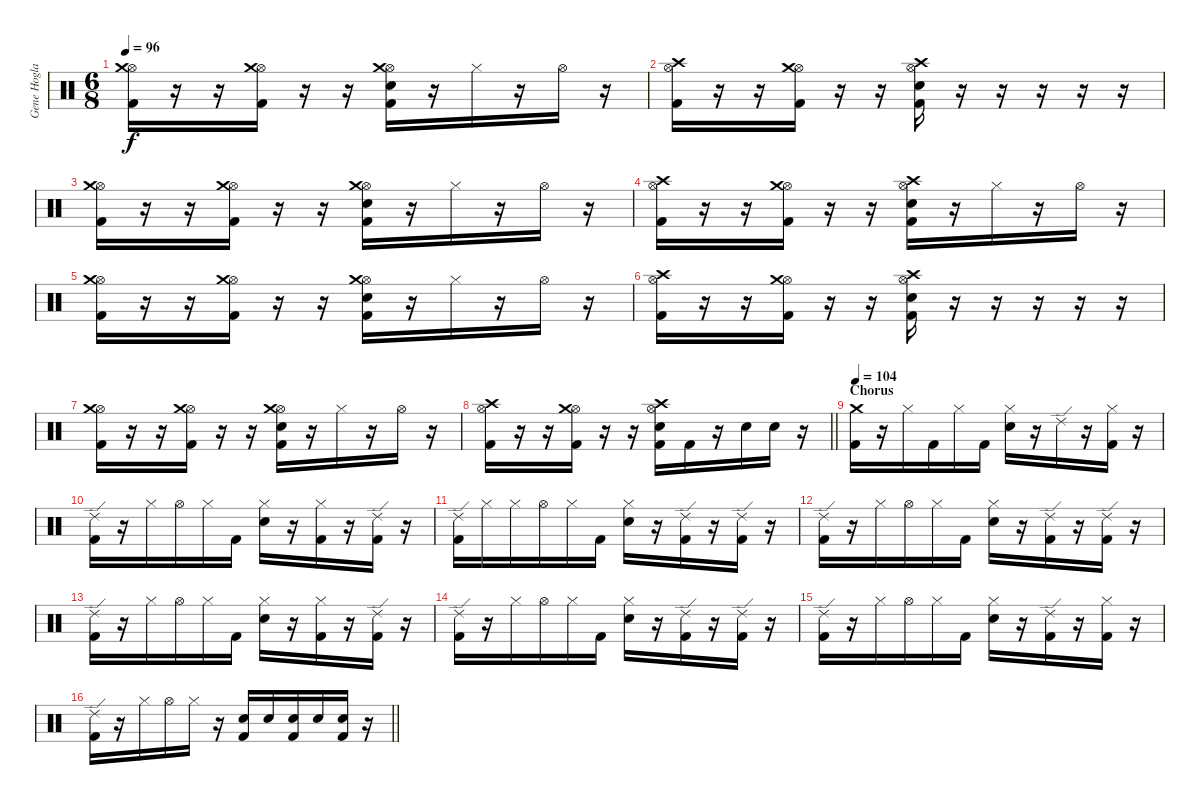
\track ("Gene Hoglan" "Gene Hogla") {instrument percussion}
\staff {score}
\articulation defaults
\ts (6 8)
\tempo 96
\clef neutral
\ks c
("Hi-Hat (open)" "Crash medium (hit)" "Kick (hit) 2").16{dy f} r.16 r.16 ("Hi-Hat (open)" "Crash medium (hit)" "Kick (hit) 2").16 r.16 r.16 ("Hi-Hat (open)" "Crash medium (hit)" "Snare (hit) 2" "Kick (hit) 2").16 r.16 "Hi-Hat (closed)".16 r.16 "Hi-Hat (open)".16 r.16 |
("Hi-Hat (open)" "Crash high (hit)" "Kick (hit) 2").16 r.16 r.16 ("Hi-Hat (open)" "Crash medium (hit)" "Kick (hit) 2").16 r.16 r.16 ("Hi-Hat (open)" "Crash high (hit)" "Snare (hit) 2" "Kick (hit) 2").16 r.16 r.16 r.16 r.16 r.16 |
("Hi-Hat (open)" "Crash medium (hit)" "Kick (hit) 2").16 r.16 r.16 ("Hi-Hat (open)" "Crash medium (hit)" "Kick (hit) 2").16 r.16 r.16 ("Hi-Hat (open)" "Crash medium (hit)" "Snare (hit) 2" "Kick (hit) 2").16 r.16 "Hi-Hat (closed)".16 r.16 "Hi-Hat (open)".16 r.16 |
("Hi-Hat (open)" "Crash high (hit)" "Kick (hit) 2").16 r.16 r.16 ("Hi-Hat (open)" "Crash medium (hit)" "Kick (hit) 2").16 r.16 r.16 ("Hi-Hat (open)" "Crash high (hit)" "Snare (hit) 2" "Kick (hit) 2").16 r.16 "Hi-Hat (closed)".16 r.16 "Hi-Hat (open)".16 r.16 |
("Hi-Hat (open)" "Crash medium (hit)" "Kick (hit) 2").16 r.16 r.16 ("Hi-Hat (open)" "Crash medium (hit)" "Kick (hit) 2").16 r.16 r.16 ("Hi-Hat (open)" "Crash medium (hit)" "Snare (hit) 2" "Kick (hit) 2").16 r.16 "Hi-Hat (closed)".16 r.16 "Hi-Hat (open)".16 r.16 |
("Hi-Hat (open)" "Crash high (hit)" "Kick (hit) 2").16 r.16 r.16 ("Hi-Hat (open)" "Crash medium (hit)" "Kick (hit) 2").16 r.16 r.16 ("Hi-Hat (open)" "Crash high (hit)" "Snare (hit) 2" "Kick (hit) 2").16 r.16 r.16 r.16 r.16 r.16 |
("Hi-Hat (open)" "Crash medium (hit)" "Kick (hit) 2").16 r.16 r.16 ("Hi-Hat (open)" "Crash medium (hit)" "Kick (hit) 2").16 r.16 r.16 ("Hi-Hat (open)" "Crash medium (hit)" "Snare (hit) 2" "Kick (hit) 2").16 r.16 "Hi-Hat (closed)".16 r.16 "Hi-Hat (open)".16 r.16 |
\barLineRight lightlight
("Hi-Hat (open)" "Crash high (hit)" "Kick (hit) 2").16 r.16 r.16 ("Hi-Hat (open)" "Crash medium (hit)" "Kick (hit) 2").16 r.16 r.16 ("Hi-Hat (open)" "Crash high (hit)" "Snare (hit) 2" "Kick (hit) 2").16 "Kick (hit) 2".16 r.16 "Snare (hit) 2".16 "Snare (hit) 2".16 r.16 |
\section ("" "Chorus")
\tempo 104
("Crash medium (hit)" "Kick (hit) 2").16 r.16 "Hi-Hat (closed)".16 "Kick (hit) 2".16 "Hi-Hat (closed)".16 "Kick (hit) 2".16 ("Hi-Hat (closed)" "Snare (hit) 2").16 r.16 "Ride (edge) 2".16 r.16 ("Hi-Hat (closed)" "Kick (hit) 2").16 r.16 |
("Ride (edge) 2" "Kick (hit) 2").16 r.16 "Hi-Hat (closed)".16 "Hi-Hat (open)".16 "Hi-Hat (closed)".16 "Kick (hit) 2".16 ("Hi-Hat (closed)" "Snare (hit) 2").16 r.16 ("Hi-Hat (closed)" "Kick (hit) 2").16 r.16 ("Ride (edge) 2" "Kick (hit) 2").16 r.16 |
("Ride (edge) 2" "Kick (hit) 2").16 "Hi-Hat (closed)".16 "Hi-Hat (closed)".16 "Hi-Hat (open)".16 "Hi-Hat (closed)".16 "Kick (hit) 2".16 ("Hi-Hat (closed)" "Snare (hit) 2").16 r.16 ("Ride (edge) 2" "Kick (hit) 2").16 r.16 ("Ride (edge) 2" "Kick (hit) 2").16 r.16 |
("Ride (edge) 2" "Kick (hit) 2").16 r.16 "Hi-Hat (closed)".16 "Hi-Hat (open)".16 "Hi-Hat (closed)".16 "Kick (hit) 2".16 ("Hi-Hat (closed)" "Snare (hit) 2").16 r.16 ("Ride (edge) 2" "Kick (hit) 2").16 r.16 ("Ride (edge) 2" "Kick (hit) 2").16 r.16 |
("Ride (edge) 2" "Kick (hit) 2").16 r.16 "Hi-Hat (closed)".16 "Hi-Hat (open)".16 "Hi-Hat (closed)".16 "Kick (hit) 2".16 ("Hi-Hat (closed)" "Snare (hit) 2").16 r.16 ("Hi-Hat (closed)" "Kick (hit) 2").16 r.16 ("Ride (edge) 2" "Kick (hit) 2").16 r.16 |
("Ride (edge) 2" "Kick (hit) 2").16 r.16 "Hi-Hat (closed)".16 "Hi-Hat (open)".16 "Hi-Hat (closed)".16 "Kick (hit) 2".16 ("Hi-Hat (closed)" "Snare (hit) 2").16 r.16 ("Ride (edge) 2" "Kick (hit) 2").16 r.16 ("Ride (edge) 2" "Kick (hit) 2").16 r.16 |
("Ride (edge) 2" "Kick (hit) 2").16 r.16 "Hi-Hat (closed)".16 "Hi-Hat (open)".16 "Hi-Hat (closed)".16 "Kick (hit) 2".16 ("Hi-Hat (closed)" "Snare (hit) 2").16 r.16 ("Ride (edge) 2" "Kick (hit) 2").16 r.16 ("Hi-Hat (closed)" "Kick (hit) 2").16 r.16 |
\barLineRight lightlight
("Ride (edge) 2" "Kick (hit) 2").16 r.16 "Hi-Hat (closed)".16 "Hi-Hat (open)".16 "Hi-Hat (closed)".16 r.16 ("Snare (hit) 2" "Kick (hit) 2").16 "Snare (hit) 2".16 ("Snare (hit) 2" "Kick (hit) 2").16 "Snare (hit) 2".16 ("Snare (hit) 2" "Kick (hit) 2").16 r.16
